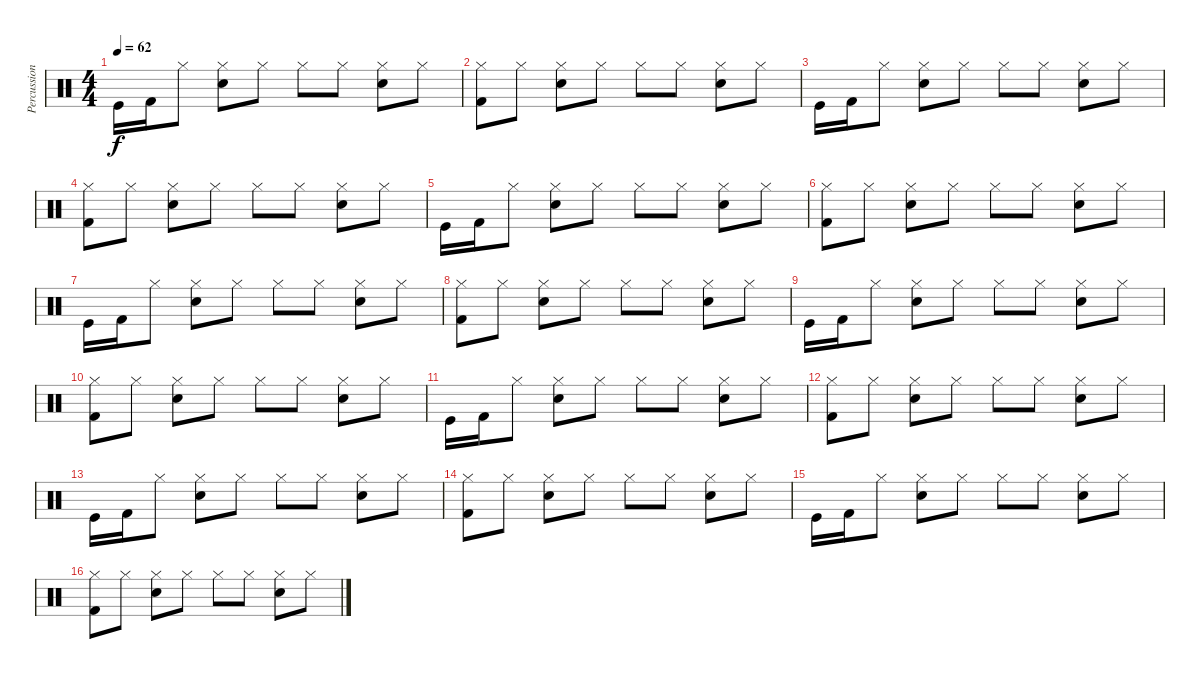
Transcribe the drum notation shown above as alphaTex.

\track ("Percussion" "Percussion") {instrument percussion}
\staff {score}
\articulation defaults
\ts (4 4)
\tempo 62
\clef neutral
\ks c "Kick (hit)".16{dy f} "Kick (hit) 2".16 "Hi-Hat (closed)".8
("Hi-Hat (closed)" "Snare (hit) 2").8 "Hi-Hat (closed)".8 "Hi-Hat (closed)".8 "Hi-Hat (closed)".8 ("Hi-Hat (closed)" "Snare (hit) 2").8 "Hi-Hat (closed)".8 |
("Hi-Hat (closed)" "Kick (hit) 2").8 "Hi-Hat (closed)".8 ("Hi-Hat (closed)" "Snare (hit) 2").8 "Hi-Hat (closed)".8 "Hi-Hat (closed)".8 "Hi-Hat (closed)".8 ("Hi-Hat (closed)" "Snare (hit) 2").8 "Hi-Hat (closed)".8 |
"Kick (hit)".16 "Kick (hit) 2".16 "Hi-Hat (closed)".8 ("Hi-Hat (closed)" "Snare (hit) 2").8 "Hi-Hat (closed)".8 "Hi-Hat (closed)".8 "Hi-Hat (closed)".8 ("Hi-Hat (closed)" "Snare (hit) 2").8 "Hi-Hat (closed)".8 |
("Hi-Hat (closed)" "Kick (hit) 2").8 "Hi-Hat (closed)".8 ("Hi-Hat (closed)" "Snare (hit) 2").8 "Hi-Hat (closed)".8 "Hi-Hat (closed)".8 "Hi-Hat (closed)".8 ("Hi-Hat (closed)" "Snare (hit) 2").8 "Hi-Hat (closed)".8 |
"Kick (hit)".16 "Kick (hit) 2".16 "Hi-Hat (closed)".8 ("Hi-Hat (closed)" "Snare (hit) 2").8 "Hi-Hat (closed)".8 "Hi-Hat (closed)".8 "Hi-Hat (closed)".8 ("Hi-Hat (closed)" "Snare (hit) 2").8 "Hi-Hat (closed)".8 |
("Hi-Hat (closed)" "Kick (hit) 2").8 "Hi-Hat (closed)".8 ("Hi-Hat (closed)" "Snare (hit) 2").8 "Hi-Hat (closed)".8 "Hi-Hat (closed)".8 "Hi-Hat (closed)".8 ("Hi-Hat (closed)" "Snare (hit) 2").8 "Hi-Hat (closed)".8 |
"Kick (hit)".16 "Kick (hit) 2".16 "Hi-Hat (closed)".8 ("Hi-Hat (closed)" "Snare (hit) 2").8 "Hi-Hat (closed)".8 "Hi-Hat (closed)".8 "Hi-Hat (closed)".8 ("Hi-Hat (closed)" "Snare (hit) 2").8 "Hi-Hat (closed)".8 |
("Hi-Hat (closed)" "Kick (hit) 2").8 "Hi-Hat (closed)".8 ("Hi-Hat (closed)" "Snare (hit) 2").8 "Hi-Hat (closed)".8 "Hi-Hat (closed)".8 "Hi-Hat (closed)".8 ("Hi-Hat (closed)" "Snare (hit) 2").8 "Hi-Hat (closed)".8 |
"Kick (hit)".16 "Kick (hit) 2".16 "Hi-Hat (closed)".8 ("Hi-Hat (closed)" "Snare (hit) 2").8 "Hi-Hat (closed)".8 "Hi-Hat (closed)".8 "Hi-Hat (closed)".8 ("Hi-Hat (closed)" "Snare (hit) 2").8 "Hi-Hat (closed)".8 |
("Hi-Hat (closed)" "Kick (hit) 2").8 "Hi-Hat (closed)".8 ("Hi-Hat (closed)" "Snare (hit) 2").8 "Hi-Hat (closed)".8 "Hi-Hat (closed)".8 "Hi-Hat (closed)".8 ("Hi-Hat (closed)" "Snare (hit) 2").8 "Hi-Hat (closed)".8 |
"Kick (hit)".16 "Kick (hit) 2".16 "Hi-Hat (closed)".8 ("Hi-Hat (closed)" "Snare (hit) 2").8 "Hi-Hat (closed)".8 "Hi-Hat (closed)".8 "Hi-Hat (closed)".8 ("Hi-Hat (closed)" "Snare (hit) 2").8 "Hi-Hat (closed)".8 |
("Hi-Hat (closed)" "Kick (hit) 2").8 "Hi-Hat (closed)".8 ("Hi-Hat (closed)" "Snare (hit) 2").8 "Hi-Hat (closed)".8 "Hi-Hat (closed)".8 "Hi-Hat (closed)".8 ("Hi-Hat (closed)" "Snare (hit) 2").8 "Hi-Hat (closed)".8 |
"Kick (hit)".16 "Kick (hit) 2".16 "Hi-Hat (closed)".8 ("Hi-Hat (closed)" "Snare (hit) 2").8 "Hi-Hat (closed)".8 "Hi-Hat (closed)".8 "Hi-Hat (closed)".8 ("Hi-Hat (closed)" "Snare (hit) 2").8 "Hi-Hat (closed)".8 |
("Hi-Hat (closed)" "Kick (hit) 2").8 "Hi-Hat (closed)".8 ("Hi-Hat (closed)" "Snare (hit) 2").8 "Hi-Hat (closed)".8 "Hi-Hat (closed)".8 "Hi-Hat (closed)".8 ("Hi-Hat (closed)" "Snare (hit) 2").8 "Hi-Hat (closed)".8 |
"Kick (hit)".16 "Kick (hit) 2".16 "Hi-Hat (closed)".8 ("Hi-Hat (closed)" "Snare (hit) 2").8 "Hi-Hat (closed)".8 "Hi-Hat (closed)".8 "Hi-Hat (closed)".8 ("Hi-Hat (closed)" "Snare (hit) 2").8 "Hi-Hat (closed)".8 |
("Hi-Hat (closed)" "Kick (hit) 2").8 "Hi-Hat (closed)".8 ("Hi-Hat (closed)" "Snare (hit) 2").8 "Hi-Hat (closed)".8 "Hi-Hat (closed)".8 "Hi-Hat (closed)".8 ("Hi-Hat (closed)" "Snare (hit) 2").8 "Hi-Hat (closed)".8
